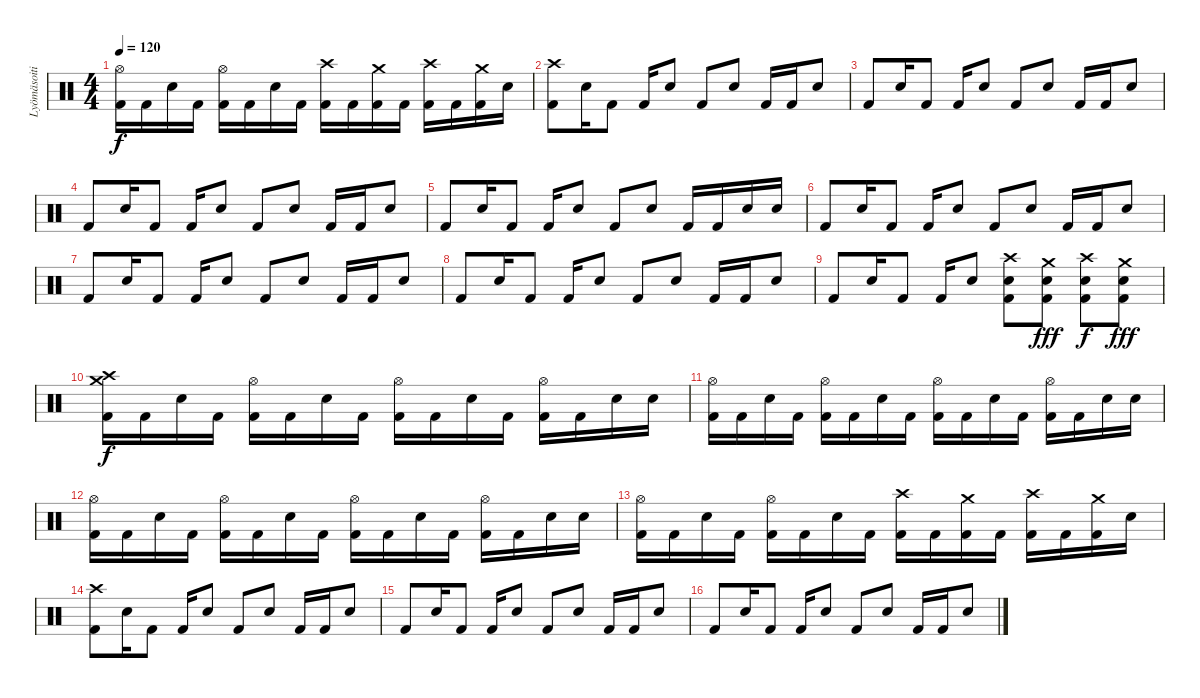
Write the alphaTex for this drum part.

\track ("Lyömäsoitin" "Lyömäsoiti") {instrument percussion}
\staff {score}
\articulation defaults
\ts (4 4)
\tempo 120
\clef neutral
\ks c
("Hi-Hat (open)" "Kick (hit) 2").16{dy f} "Kick (hit) 2".16 "Electric Snare (hit)".16 "Kick (hit) 2".16 ("Hi-Hat (open)" "Kick (hit) 2").16 "Kick (hit) 2".16 "Electric Snare (hit)".16 "Kick (hit) 2".16 ("Crash high (hit)" "Kick (hit) 2").16 "Kick (hit) 2".16 ("Crash medium (hit)" "Kick (hit) 2").16 "Kick (hit) 2".16 ("Crash high (hit)" "Kick (hit) 2").16 "Kick (hit) 2".16 ("Crash medium (hit)" "Kick (hit) 2").16 "Electric Snare (hit)".16 |
("Crash high (hit)" "Kick (hit) 2").8 "Electric Snare (hit)".16 "Kick (hit) 2".8 "Kick (hit) 2".16 "Electric Snare (hit)".8 "Kick (hit) 2".8 "Electric Snare (hit)".8 "Kick (hit) 2".16 "Kick (hit) 2".16 "Electric Snare (hit)".8 |
"Kick (hit) 2".8 "Electric Snare (hit)".16 "Kick (hit) 2".8 "Kick (hit) 2".16 "Electric Snare (hit)".8 "Kick (hit) 2".8 "Electric Snare (hit)".8 "Kick (hit) 2".16 "Kick (hit) 2".16 "Electric Snare (hit)".8 |
"Kick (hit) 2".8 "Electric Snare (hit)".16 "Kick (hit) 2".8 "Kick (hit) 2".16 "Electric Snare (hit)".8 "Kick (hit) 2".8 "Electric Snare (hit)".8 "Kick (hit) 2".16 "Kick (hit) 2".16 "Electric Snare (hit)".8 |
"Kick (hit) 2".8 "Electric Snare (hit)".16 "Kick (hit) 2".8 "Kick (hit) 2".16 "Electric Snare (hit)".8 "Kick (hit) 2".8 "Electric Snare (hit)".8 "Kick (hit) 2".16 "Kick (hit) 2".16 "Electric Snare (hit)".16 "Electric Snare (hit)".16 |
"Kick (hit) 2".8 "Electric Snare (hit)".16 "Kick (hit) 2".8 "Kick (hit) 2".16 "Electric Snare (hit)".8 "Kick (hit) 2".8 "Electric Snare (hit)".8 "Kick (hit) 2".16 "Kick (hit) 2".16 "Electric Snare (hit)".8 |
"Kick (hit) 2".8 "Electric Snare (hit)".16 "Kick (hit) 2".8 "Kick (hit) 2".16 "Electric Snare (hit)".8 "Kick (hit) 2".8 "Electric Snare (hit)".8 "Kick (hit) 2".16 "Kick (hit) 2".16 "Electric Snare (hit)".8 |
"Kick (hit) 2".8 "Electric Snare (hit)".16 "Kick (hit) 2".8 "Kick (hit) 2".16 "Electric Snare (hit)".8 "Kick (hit) 2".8 "Electric Snare (hit)".8 "Kick (hit) 2".16 "Kick (hit) 2".16 "Electric Snare (hit)".8 |
"Kick (hit) 2".8 "Electric Snare (hit)".16 "Kick (hit) 2".8 "Kick (hit) 2".16 "Electric Snare (hit)".8 ("Crash high (hit)" "Electric Snare (hit)" "Kick (hit) 2").8 ("Crash medium (hit)" "Electric Snare (hit)" "Kick (hit) 2").8{dy fff} ("Crash high (hit)" "Electric Snare (hit)" "Kick (hit) 2").8{dy f} ("Crash medium (hit)" "Electric Snare (hit)" "Kick (hit) 2").8{dy fff} |
("Crash medium (hit)" "Crash high (hit)" "Kick (hit) 2").16{dy f} "Kick (hit) 2".16 "Electric Snare (hit)".16 "Kick (hit) 2".16 ("Hi-Hat (open)" "Kick (hit) 2").16 "Kick (hit) 2".16 "Electric Snare (hit)".16 "Kick (hit) 2".16 ("Hi-Hat (open)" "Kick (hit) 2").16 "Kick (hit) 2".16 "Electric Snare (hit)".16 "Kick (hit) 2".16 ("Hi-Hat (open)" "Kick (hit) 2").16 "Kick (hit) 2".16 "Electric Snare (hit)".16 "Electric Snare (hit)".16 |
("Hi-Hat (open)" "Kick (hit) 2").16 "Kick (hit) 2".16 "Electric Snare (hit)".16 "Kick (hit) 2".16 ("Hi-Hat (open)" "Kick (hit) 2").16 "Kick (hit) 2".16 "Electric Snare (hit)".16 "Kick (hit) 2".16 ("Hi-Hat (open)" "Kick (hit) 2").16 "Kick (hit) 2".16 "Electric Snare (hit)".16 "Kick (hit) 2".16 ("Hi-Hat (open)" "Kick (hit) 2").16 "Kick (hit) 2".16 "Electric Snare (hit)".16 "Electric Snare (hit)".16 |
("Hi-Hat (open)" "Kick (hit) 2").16 "Kick (hit) 2".16 "Electric Snare (hit)".16 "Kick (hit) 2".16 ("Hi-Hat (open)" "Kick (hit) 2").16 "Kick (hit) 2".16 "Electric Snare (hit)".16 "Kick (hit) 2".16 ("Hi-Hat (open)" "Kick (hit) 2").16 "Kick (hit) 2".16 "Electric Snare (hit)".16 "Kick (hit) 2".16 ("Hi-Hat (open)" "Kick (hit) 2").16 "Kick (hit) 2".16 "Electric Snare (hit)".16 "Electric Snare (hit)".16 |
("Hi-Hat (open)" "Kick (hit) 2").16 "Kick (hit) 2".16 "Electric Snare (hit)".16 "Kick (hit) 2".16 ("Hi-Hat (open)" "Kick (hit) 2").16 "Kick (hit) 2".16 "Electric Snare (hit)".16 "Kick (hit) 2".16 ("Crash high (hit)" "Kick (hit) 2").16 "Kick (hit) 2".16 ("Crash medium (hit)" "Kick (hit) 2").16 "Kick (hit) 2".16 ("Crash high (hit)" "Kick (hit) 2").16 "Kick (hit) 2".16 ("Crash medium (hit)" "Kick (hit) 2").16 "Electric Snare (hit)".16 |
("Crash high (hit)" "Kick (hit) 2").8 "Electric Snare (hit)".16 "Kick (hit) 2".8 "Kick (hit) 2".16 "Electric Snare (hit)".8 "Kick (hit) 2".8 "Electric Snare (hit)".8 "Kick (hit) 2".16 "Kick (hit) 2".16 "Electric Snare (hit)".8 |
"Kick (hit) 2".8 "Electric Snare (hit)".16 "Kick (hit) 2".8 "Kick (hit) 2".16 "Electric Snare (hit)".8 "Kick (hit) 2".8 "Electric Snare (hit)".8 "Kick (hit) 2".16 "Kick (hit) 2".16 "Electric Snare (hit)".8 |
"Kick (hit) 2".8 "Electric Snare (hit)".16 "Kick (hit) 2".8 "Kick (hit) 2".16 "Electric Snare (hit)".8 "Kick (hit) 2".8 "Electric Snare (hit)".8 "Kick (hit) 2".16 "Kick (hit) 2".16 "Electric Snare (hit)".8
